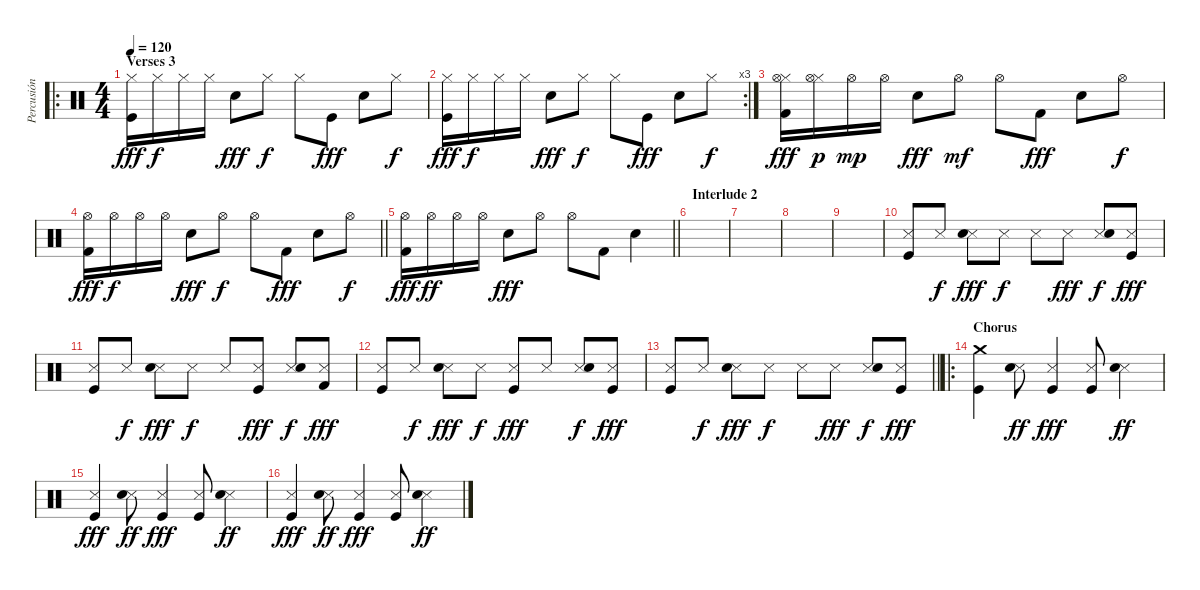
\track ("Percusión" "Percusión") {instrument percussion}
\staff {score}
\articulation defaults
\ro
\ts (4 4)
\section ("" "Verses 3")
\tempo 120
\clef neutral
\ks c
("Hi-Hat (closed)" "Kick (hit)").16{dy fff} "Hi-Hat (closed)".16{dy f} "Hi-Hat (closed)".16 "Hi-Hat (closed)".16 "Electric Snare (hit)".8{dy fff} "Hi-Hat (closed)".8{dy f} "Hi-Hat (closed)".8 "Kick (hit)".8{dy fff} "Electric Snare (hit)".8 "Hi-Hat (closed)".8{dy f} |
\rc 3
("Hi-Hat (closed)" "Kick (hit)").16{dy fff} "Hi-Hat (closed)".16{dy f} "Hi-Hat (closed)".16 "Hi-Hat (closed)".16 "Electric Snare (hit)".8{dy fff} "Hi-Hat (closed)".8{dy f} "Hi-Hat (closed)".8 "Kick (hit)".8{dy fff} "Electric Snare (hit)".8 "Hi-Hat (closed)".8{dy f} |
("Hi-Hat (closed)" "Hi-Hat (open)" "Kick (hit) 2").16{dy fff} ("Hi-Hat (closed)" "Hi-Hat (open)").16{dy p} "Hi-Hat (open)".16{dy mp} "Hi-Hat (open)".16 "Electric Snare (hit)".8{dy fff} "Hi-Hat (open)".8{dy mf} "Hi-Hat (open)".8 "Kick (hit) 2".8{dy fff} "Electric Snare (hit)".8 "Hi-Hat (open)".8{dy f} |
\barLineRight lightlight
("Hi-Hat (open)" "Kick (hit) 2").16{dy fff} "Hi-Hat (open)".16{dy f} "Hi-Hat (open)".16 "Hi-Hat (open)".16 "Electric Snare (hit)".8{dy fff} "Hi-Hat (open)".8{dy f} "Hi-Hat (open)".8 "Kick (hit) 2".8{dy fff} "Electric Snare (hit)".8 "Hi-Hat (open)".8{dy f} |
\barLineRight lightlight
("Hi-Hat (open)" "Kick (hit) 2").16{dy fff} "Hi-Hat (open)".16{dy ff} "Hi-Hat (open)".16 "Hi-Hat (open)".16 "Electric Snare (hit)".8{dy fff} "Hi-Hat (open)".8 "Hi-Hat (open)".8 "Kick (hit) 2".8 "Electric Snare (hit)".4 |
\section ("" "Interlude 2")
|
|
|
|
("Snare (side stick) 3" "Kick (hit)").8 "Snare (side stick) 3".8{dy f} ("Snare (side stick) 3" "Electric Snare (hit)").8{dy fff} "Snare (side stick) 3".8{dy f} "Snare (side stick) 3".8 "Snare (side stick) 3".8{dy fff} ("Snare (side stick) 3" "Electric Snare (hit)").8{dy f} ("Snare (side stick) 3" "Kick (hit)").8{dy fff} |
("Snare (side stick) 3" "Kick (hit)").8 "Snare (side stick) 3".8{dy f} ("Snare (side stick) 3" "Electric Snare (hit)").8{dy fff} "Snare (side stick) 3".8{dy f} "Snare (side stick) 3".8 ("Snare (side stick) 3" "Kick (hit)").8{dy fff} ("Snare (side stick) 3" "Electric Snare (hit)").8{dy f} ("Snare (side stick) 3" "Kick (hit) 2").8{dy fff} |
("Snare (side stick) 3" "Kick (hit)").8 "Snare (side stick) 3".8{dy f} ("Snare (side stick) 3" "Electric Snare (hit)").8{dy fff} "Snare (side stick) 3".8{dy f} ("Snare (side stick) 3" "Kick (hit)").8{dy fff} "Snare (side stick) 3".8 ("Snare (side stick) 3" "Electric Snare (hit)").8{dy f} ("Snare (side stick) 3" "Kick (hit)").8{dy fff} |
\barLineRight lightlight
("Snare (side stick) 3" "Kick (hit)").8 "Snare (side stick) 3".8{dy f} ("Snare (side stick) 3" "Electric Snare (hit)").8{dy fff} "Snare (side stick) 3".8{dy f} "Snare (side stick) 3".8 "Snare (side stick) 3".8{dy fff} ("Snare (side stick) 3" "Electric Snare (hit)").8{dy f} ("Snare (side stick) 3" "Kick (hit)").8{dy fff} |
\ro
\section ("" "Chorus")
("Crash medium (hit)" "Kick (hit)").4 ("Snare (side stick) 3" "Electric Snare (hit)").8{dy ff} ("Snare (side stick) 3" "Kick (hit)").4{dy fff} ("Snare (side stick) 3" "Kick (hit)").8 ("Snare (side stick) 3" "Electric Snare (hit)").4{dy ff} |
("Snare (side stick) 3" "Kick (hit)").4{dy fff} ("Snare (side stick) 3" "Electric Snare (hit)").8{dy ff} ("Snare (side stick) 3" "Kick (hit)").4{dy fff} ("Snare (side stick) 3" "Kick (hit)").8 ("Snare (side stick) 3" "Electric Snare (hit)").4{dy ff} |
("Snare (side stick) 3" "Kick (hit)").4{dy fff} ("Snare (side stick) 3" "Electric Snare (hit)").8{dy ff} ("Snare (side stick) 3" "Kick (hit)").4{dy fff} ("Snare (side stick) 3" "Kick (hit)").8 ("Snare (side stick) 3" "Electric Snare (hit)").4{dy ff}
